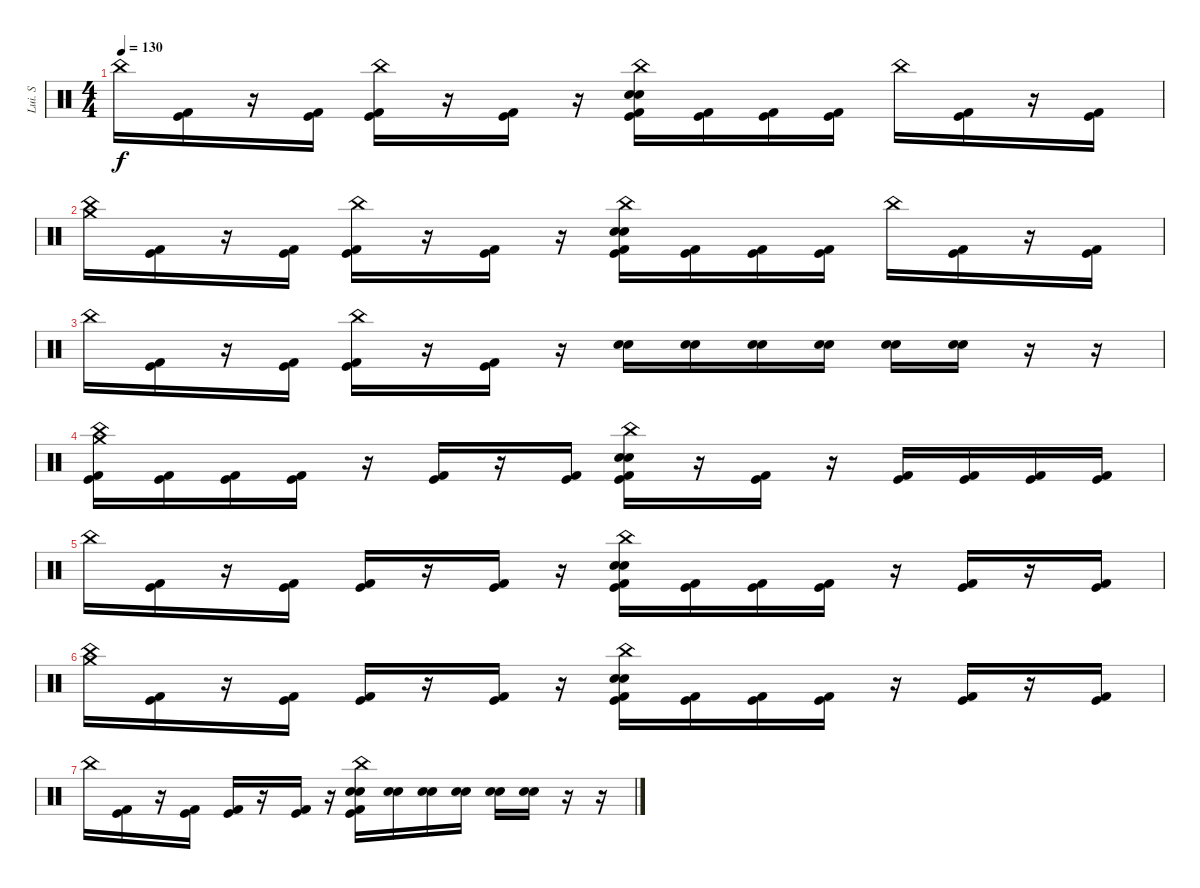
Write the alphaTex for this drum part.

\track ("Lui. S" "Lui. S") {instrument percussion}
\staff {score}
\articulation defaults
\ts (4 4)
\tempo 130
\clef neutral
\ks c "China (hit)".16{dy f}
("Kick (hit) 2" "Kick (hit)").16 r.16 ("Kick (hit) 2" "Kick (hit)").16 ("China (hit)" "Kick (hit) 2" "Kick (hit)").16 r.16 ("Kick (hit) 2" "Kick (hit)").16 r.16 ("China (hit)" "Electric Snare (hit)" "Snare (hit) 2" "Kick (hit) 2" "Kick (hit)").16 ("Kick (hit) 2" "Kick (hit)").16 ("Kick (hit) 2" "Kick (hit)").16 ("Kick (hit) 2" "Kick (hit)").16 "China (hit)".16 ("Kick (hit) 2" "Kick (hit)").16 r.16 ("Kick (hit) 2" "Kick (hit)").16 |
("Crash medium (hit)" "China (hit)").16 ("Kick (hit) 2" "Kick (hit)").16 r.16 ("Kick (hit) 2" "Kick (hit)").16 ("China (hit)" "Kick (hit) 2" "Kick (hit)").16 r.16 ("Kick (hit) 2" "Kick (hit)").16 r.16 ("China (hit)" "Electric Snare (hit)" "Snare (hit) 2" "Kick (hit) 2" "Kick (hit)").16 ("Kick (hit) 2" "Kick (hit)").16 ("Kick (hit) 2" "Kick (hit)").16 ("Kick (hit) 2" "Kick (hit)").16 "China (hit)".16 ("Kick (hit) 2" "Kick (hit)").16 r.16 ("Kick (hit) 2" "Kick (hit)").16 |
"China (hit)".16 ("Kick (hit) 2" "Kick (hit)").16 r.16 ("Kick (hit) 2" "Kick (hit)").16 ("China (hit)" "Kick (hit) 2" "Kick (hit)").16 r.16 ("Kick (hit) 2" "Kick (hit)").16 r.16 ("Electric Snare (hit)" "Snare (hit) 2").16 ("Electric Snare (hit)" "Snare (hit) 2").16 ("Electric Snare (hit)" "Snare (hit) 2").16 ("Electric Snare (hit)" "Snare (hit) 2").16 ("Electric Snare (hit)" "Snare (hit) 2").16 ("Electric Snare (hit)" "Snare (hit) 2").16 r.16{volume 0} r.16 |
("Crash medium (hit)" "China (hit)" "Kick (hit) 2" "Kick (hit)").16{volume 14} ("Kick (hit) 2" "Kick (hit)").16 ("Kick (hit) 2" "Kick (hit)").16 ("Kick (hit) 2" "Kick (hit)").16 r.16 ("Kick (hit) 2" "Kick (hit)").16 r.16 ("Kick (hit) 2" "Kick (hit)").16 ("China (hit)" "Electric Snare (hit)" "Snare (hit) 2" "Kick (hit) 2" "Kick (hit)").16 r.16 ("Kick (hit) 2" "Kick (hit)").16 r.16 ("Kick (hit) 2" "Kick (hit)").16 ("Kick (hit) 2" "Kick (hit)").16 ("Kick (hit) 2" "Kick (hit)").16 ("Kick (hit) 2" "Kick (hit)").16 |
"China (hit)".16 ("Kick (hit) 2" "Kick (hit)").16 r.16 ("Kick (hit) 2" "Kick (hit)").16 ("Kick (hit) 2" "Kick (hit)").16 r.16 ("Kick (hit) 2" "Kick (hit)").16 r.16 ("China (hit)" "Electric Snare (hit)" "Snare (hit) 2" "Kick (hit) 2" "Kick (hit)").16 ("Kick (hit) 2" "Kick (hit)").16 ("Kick (hit) 2" "Kick (hit)").16 ("Kick (hit) 2" "Kick (hit)").16 r.16 ("Kick (hit) 2" "Kick (hit)").16 r.16 ("Kick (hit) 2" "Kick (hit)").16 |
("Crash medium (hit)" "China (hit)").16 ("Kick (hit) 2" "Kick (hit)").16 r.16 ("Kick (hit) 2" "Kick (hit)").16 ("Kick (hit) 2" "Kick (hit)").16 r.16 ("Kick (hit) 2" "Kick (hit)").16 r.16 ("China (hit)" "Electric Snare (hit)" "Snare (hit) 2" "Kick (hit) 2" "Kick (hit)").16 ("Kick (hit) 2" "Kick (hit)").16 ("Kick (hit) 2" "Kick (hit)").16 ("Kick (hit) 2" "Kick (hit)").16 r.16 ("Kick (hit) 2" "Kick (hit)").16 r.16 ("Kick (hit) 2" "Kick (hit)").16 |
"China (hit)".16 ("Kick (hit) 2" "Kick (hit)").16 r.16 ("Kick (hit) 2" "Kick (hit)").16 ("Kick (hit) 2" "Kick (hit)").16 r.16 ("Kick (hit) 2" "Kick (hit)").16 r.16 ("China (hit)" "Electric Snare (hit)" "Snare (hit) 2" "Kick (hit) 2" "Kick (hit)").16 ("Electric Snare (hit)" "Snare (hit) 2").16 ("Electric Snare (hit)" "Snare (hit) 2").16 ("Electric Snare (hit)" "Snare (hit) 2").16 ("Electric Snare (hit)" "Snare (hit) 2").16 ("Electric Snare (hit)" "Snare (hit) 2").16 r.16 r.16
